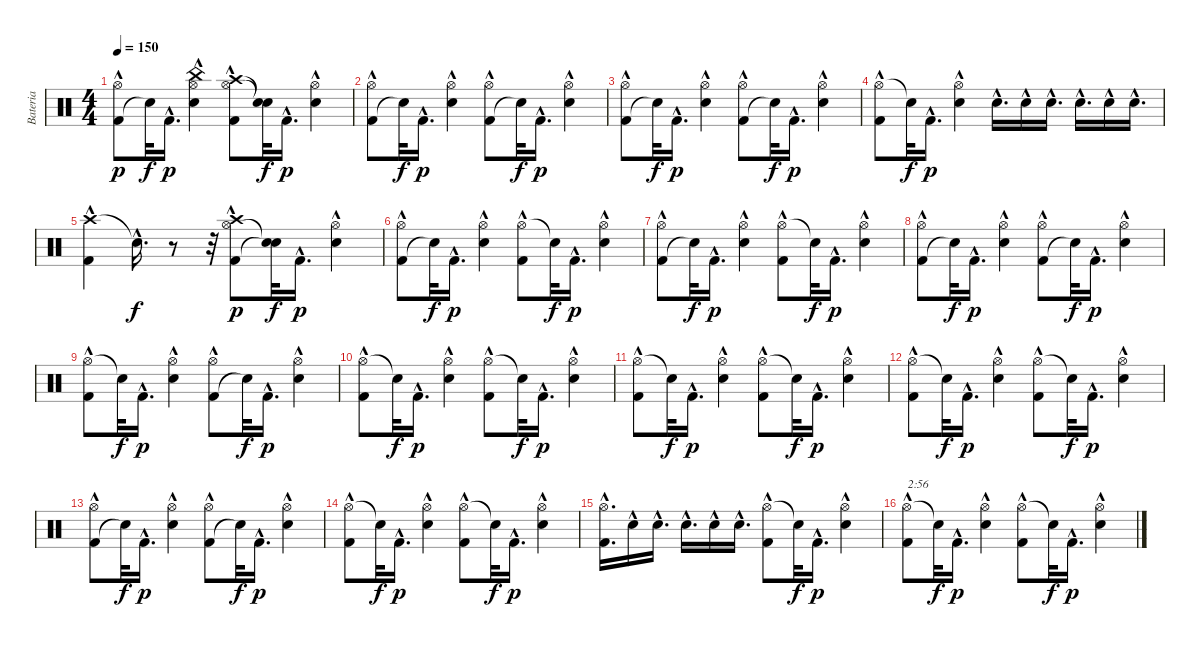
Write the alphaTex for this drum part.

\track ("Bateria" "Bateria") {instrument percussion}
\staff {score}
\articulation defaults
\ts (4 4)
\tempo 150
\clef neutral
\ks c
("Kick (hit) 2"{hac} "Hi-Hat (open)").8{dy p} "Snare (hit)"{t}.32{dy f} "Kick (hit) 2"{hac}.16{d dy p} ("Hi-Hat (open)" "Snare (hit) 2"{hac} "China (hit)").4 ("Hi-Hat (open)" "Crash high (hit)" "Kick (hit) 2"{hac}).8 ("Snare (hit)"{t} "Snare (hit)"{t}).32{dy f} "Kick (hit) 2"{hac}.16{d dy p} ("Hi-Hat (open)" "Snare (hit) 2"{hac}).4 |
("Kick (hit) 2"{hac} "Hi-Hat (open)").8 "Snare (hit)"{t}.32{dy f} "Kick (hit) 2"{hac}.16{d dy p} ("Hi-Hat (open)" "Snare (hit) 2"{hac}).4 ("Kick (hit) 2"{hac} "Hi-Hat (open)").8 "Snare (hit)"{t}.32{dy f} "Kick (hit) 2"{hac}.16{d dy p} ("Hi-Hat (open)" "Snare (hit) 2"{hac}).4 |
("Kick (hit) 2"{hac} "Hi-Hat (open)").8 "Snare (hit)"{t}.32{dy f} "Kick (hit) 2"{hac}.16{d dy p} ("Snare (hit) 2"{hac} "Hi-Hat (open)").4 ("Kick (hit) 2"{hac} "Hi-Hat (open)").8 "Snare (hit)"{t}.32{dy f} "Kick (hit) 2"{hac}.16{d dy p} ("Snare (hit) 2"{hac} "Hi-Hat (open)").4 |
("Hi-Hat (open)" "Kick (hit) 2"{hac}).8 "Snare (hit)"{t}.32{dy f} "Kick (hit) 2"{hac}.16{d dy p} ("Snare (hit) 2"{hac} "Hi-Hat (open)").4 "Snare (hit) 2"{hac}.16{d} "Snare (hit) 2"{hac}.16 "Snare (hit) 2"{hac}.16{d} "Snare (hit) 2"{hac}.16{d} "Snare (hit) 2"{hac}.16 "Snare (hit) 2"{hac}.16{d} |
("Crash high (hit)" "Kick (hit) 2"{hac}).4 "Snare (hit)"{hac t}.16{d dy f} r.8 r.32 ("Kick (hit) 2"{hac} "Hi-Hat (open)" "Crash high (hit)").8{dy p} ("Snare (hit)"{t} "Snare (hit)"{t}).32{dy f} "Kick (hit) 2"{hac}.16{d dy p} ("Snare (hit) 2"{hac} "Hi-Hat (open)").4 |
("Kick (hit) 2"{hac} "Hi-Hat (open)").8 "Snare (hit)"{t}.32{dy f} "Kick (hit) 2"{hac}.16{d dy p} ("Snare (hit) 2"{hac} "Hi-Hat (open)").4 ("Hi-Hat (open)" "Kick (hit) 2"{hac}).8 "Snare (hit)"{t}.32{dy f} "Kick (hit) 2"{hac}.16{d dy p} ("Snare (hit) 2"{hac} "Hi-Hat (open)").4 |
("Kick (hit) 2"{hac} "Hi-Hat (open)").8 "Snare (hit)"{t}.32{dy f} "Kick (hit) 2"{hac}.16{d dy p} ("Hi-Hat (open)" "Snare (hit) 2"{hac}).4 ("Hi-Hat (open)" "Kick (hit) 2"{hac}).8 "Snare (hit)"{t}.32{dy f} "Kick (hit) 2"{hac}.16{d dy p} ("Hi-Hat (open)" "Snare (hit) 2"{hac}).4 |
("Kick (hit) 2"{hac} "Hi-Hat (open)").8 "Snare (hit)"{t}.32{dy f} "Kick (hit) 2"{hac}.16{d dy p} ("Snare (hit) 2"{hac} "Hi-Hat (open)").4 ("Kick (hit) 2"{hac} "Hi-Hat (open)").8 "Snare (hit)"{t}.32{dy f} "Kick (hit) 2"{hac}.16{d dy p} ("Hi-Hat (open)" "Snare (hit) 2"{hac}).4 |
("Hi-Hat (open)" "Kick (hit) 2"{hac}).8 "Snare (hit)"{t}.32{dy f} "Kick (hit) 2"{hac}.16{d dy p} ("Snare (hit) 2"{hac} "Hi-Hat (open)").4 ("Kick (hit) 2"{hac} "Hi-Hat (open)").8 "Snare (hit)"{t}.32{dy f} "Kick (hit) 2"{hac}.16{d dy p} ("Snare (hit) 2"{hac} "Hi-Hat (open)").4 |
("Hi-Hat (open)" "Kick (hit) 2"{hac}).8 "Snare (hit)"{t}.32{dy f} "Kick (hit) 2"{hac}.16{d dy p} ("Hi-Hat (open)" "Snare (hit) 2"{hac}).4 ("Hi-Hat (open)" "Kick (hit) 2"{hac}).8 "Snare (hit)"{t}.32{dy f} "Kick (hit) 2"{hac}.16{d dy p} ("Snare (hit) 2"{hac} "Hi-Hat (open)").4 |
("Hi-Hat (open)" "Kick (hit) 2"{hac}).8 "Snare (hit)"{t}.32{dy f} "Kick (hit) 2"{hac}.16{d dy p} ("Hi-Hat (open)" "Snare (hit) 2"{hac}).4 ("Hi-Hat (open)" "Kick (hit) 2"{hac}).8 "Snare (hit)"{t}.32{dy f} "Kick (hit) 2"{hac}.16{d dy p} ("Hi-Hat (open)" "Snare (hit) 2"{hac}).4 |
("Hi-Hat (open)" "Kick (hit) 2"{hac}).8 "Snare (hit)"{t}.32{dy f} "Kick (hit) 2"{hac}.16{d dy p} ("Snare (hit) 2"{hac} "Hi-Hat (open)").4 ("Hi-Hat (open)" "Kick (hit) 2"{hac}).8 "Snare (hit)"{t}.32{dy f} "Kick (hit) 2"{hac}.16{d dy p} ("Hi-Hat (open)" "Snare (hit) 2"{hac}).4 |
("Kick (hit) 2"{hac} "Hi-Hat (open)").8 "Snare (hit)"{t}.32{dy f} "Kick (hit) 2"{hac}.16{d dy p} ("Hi-Hat (open)" "Snare (hit) 2"{hac}).4 ("Kick (hit) 2"{hac} "Hi-Hat (open)").8 "Snare (hit)"{t}.32{dy f} "Kick (hit) 2"{hac}.16{d dy p} ("Hi-Hat (open)" "Snare (hit) 2"{hac}).4 |
("Hi-Hat (open)" "Kick (hit) 2"{hac}).8 "Snare (hit)"{t}.32{dy f} "Kick (hit) 2"{hac}.16{d dy p} ("Snare (hit) 2"{hac} "Hi-Hat (open)").4 ("Hi-Hat (open)" "Kick (hit) 2"{hac}).8 "Snare (hit)"{t}.32{dy f} "Kick (hit) 2"{hac}.16{d dy p} ("Snare (hit) 2"{hac} "Hi-Hat (open)").4 |
("Kick (hit) 2"{hac} "Hi-Hat (open)").16{d} "Snare (hit) 2"{hac}.16 "Snare (hit) 2"{hac}.16{d} "Snare (hit) 2"{hac}.16{d} "Snare (hit) 2"{hac}.16 "Snare (hit) 2"{hac}.16{d} ("Hi-Hat (open)" "Kick (hit) 2"{hac}).8 "Snare (hit)"{t}.32{dy f} "Kick (hit) 2"{hac}.16{d dy p} ("Snare (hit) 2"{hac} "Hi-Hat (open)").4 |
("Hi-Hat (open)" "Kick (hit) 2"{hac}).8{txt "2:56"} "Snare (hit)"{t}.32{dy f} "Kick (hit) 2"{hac}.16{d dy p} ("Hi-Hat (open)" "Snare (hit) 2"{hac}).4 ("Hi-Hat (open)" "Kick (hit) 2"{hac}).8 "Snare (hit)"{t}.32{dy f} "Kick (hit) 2"{hac}.16{d dy p} ("Hi-Hat (open)" "Snare (hit) 2"{hac}).4
